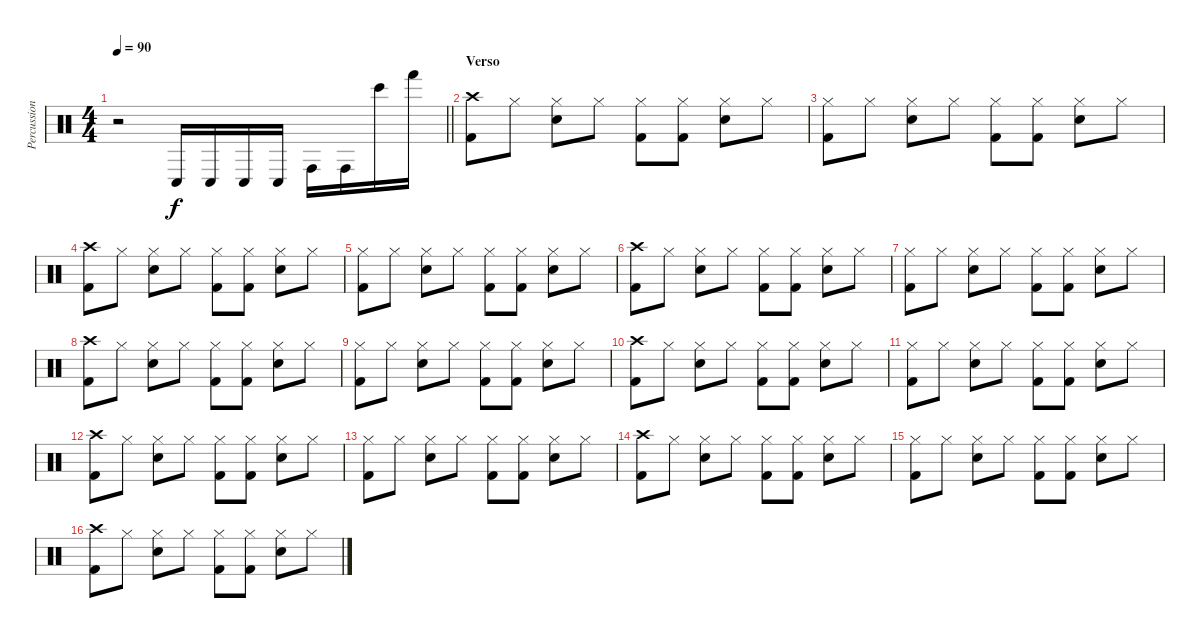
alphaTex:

\track ("Percussion" "Percussion") {instrument percussion}
\staff {score}
\articulation defaults
\ts (4 4)
\tempo 90
\clef neutral
\barLineRight lightlight
\ks c
r.2{dy f} "Conga low (hit)".16 "Conga low (hit)".16 "Conga low (hit)".16 "Conga low (hit)".16 "Conga high (hit)".16 "Conga high (hit)".16 "Bongo High (hit)".16 "Hand (hit)".16 |
\section ("" "Verso")
("Crash high (hit)" "Kick (hit) 2").8 "Hi-Hat (closed)".8 ("Hi-Hat (closed)" "Snare (hit) 2").8 "Hi-Hat (closed)".8 ("Hi-Hat (closed)" "Kick (hit) 2").8 ("Hi-Hat (closed)" "Kick (hit) 2").8 ("Hi-Hat (closed)" "Snare (hit) 2").8 "Hi-Hat (closed)".8 |
("Hi-Hat (closed)" "Kick (hit) 2").8 "Hi-Hat (closed)".8 ("Hi-Hat (closed)" "Snare (hit) 2").8 "Hi-Hat (closed)".8 ("Hi-Hat (closed)" "Kick (hit) 2").8 ("Hi-Hat (closed)" "Kick (hit) 2").8 ("Hi-Hat (closed)" "Snare (hit) 2").8 "Hi-Hat (closed)".8 |
("Crash high (hit)" "Kick (hit) 2").8 "Hi-Hat (closed)".8 ("Hi-Hat (closed)" "Snare (hit) 2").8 "Hi-Hat (closed)".8 ("Hi-Hat (closed)" "Kick (hit) 2").8 ("Hi-Hat (closed)" "Kick (hit) 2").8 ("Hi-Hat (closed)" "Snare (hit) 2").8 "Hi-Hat (closed)".8 |
("Hi-Hat (closed)" "Kick (hit) 2").8 "Hi-Hat (closed)".8 ("Hi-Hat (closed)" "Snare (hit) 2").8 "Hi-Hat (closed)".8 ("Hi-Hat (closed)" "Kick (hit) 2").8 ("Hi-Hat (closed)" "Kick (hit) 2").8 ("Hi-Hat (closed)" "Snare (hit) 2").8 "Hi-Hat (closed)".8 |
("Crash high (hit)" "Kick (hit) 2").8 "Hi-Hat (closed)".8 ("Hi-Hat (closed)" "Snare (hit) 2").8 "Hi-Hat (closed)".8 ("Hi-Hat (closed)" "Kick (hit) 2").8 ("Hi-Hat (closed)" "Kick (hit) 2").8 ("Hi-Hat (closed)" "Snare (hit) 2").8 "Hi-Hat (closed)".8 |
("Hi-Hat (closed)" "Kick (hit) 2").8 "Hi-Hat (closed)".8 ("Hi-Hat (closed)" "Snare (hit) 2").8 "Hi-Hat (closed)".8 ("Hi-Hat (closed)" "Kick (hit) 2").8 ("Hi-Hat (closed)" "Kick (hit) 2").8 ("Hi-Hat (closed)" "Snare (hit) 2").8 "Hi-Hat (closed)".8 |
("Crash high (hit)" "Kick (hit) 2").8 "Hi-Hat (closed)".8 ("Hi-Hat (closed)" "Snare (hit) 2").8 "Hi-Hat (closed)".8 ("Hi-Hat (closed)" "Kick (hit) 2").8 ("Hi-Hat (closed)" "Kick (hit) 2").8 ("Hi-Hat (closed)" "Snare (hit) 2").8 "Hi-Hat (closed)".8 |
("Hi-Hat (closed)" "Kick (hit) 2").8 "Hi-Hat (closed)".8 ("Hi-Hat (closed)" "Snare (hit) 2").8 "Hi-Hat (closed)".8 ("Hi-Hat (closed)" "Kick (hit) 2").8 ("Hi-Hat (closed)" "Kick (hit) 2").8 ("Hi-Hat (closed)" "Snare (hit) 2").8 "Hi-Hat (closed)".8 |
("Crash high (hit)" "Kick (hit) 2").8 "Hi-Hat (closed)".8 ("Hi-Hat (closed)" "Snare (hit) 2").8 "Hi-Hat (closed)".8 ("Hi-Hat (closed)" "Kick (hit) 2").8 ("Hi-Hat (closed)" "Kick (hit) 2").8 ("Hi-Hat (closed)" "Snare (hit) 2").8 "Hi-Hat (closed)".8 |
("Hi-Hat (closed)" "Kick (hit) 2").8 "Hi-Hat (closed)".8 ("Hi-Hat (closed)" "Snare (hit) 2").8 "Hi-Hat (closed)".8 ("Hi-Hat (closed)" "Kick (hit) 2").8 ("Hi-Hat (closed)" "Kick (hit) 2").8 ("Hi-Hat (closed)" "Snare (hit) 2").8 "Hi-Hat (closed)".8 |
("Crash high (hit)" "Kick (hit) 2").8 "Hi-Hat (closed)".8 ("Hi-Hat (closed)" "Snare (hit) 2").8 "Hi-Hat (closed)".8 ("Hi-Hat (closed)" "Kick (hit) 2").8 ("Hi-Hat (closed)" "Kick (hit) 2").8 ("Hi-Hat (closed)" "Snare (hit) 2").8 "Hi-Hat (closed)".8 |
("Hi-Hat (closed)" "Kick (hit) 2").8 "Hi-Hat (closed)".8 ("Hi-Hat (closed)" "Snare (hit) 2").8 "Hi-Hat (closed)".8 ("Hi-Hat (closed)" "Kick (hit) 2").8 ("Hi-Hat (closed)" "Kick (hit) 2").8 ("Hi-Hat (closed)" "Snare (hit) 2").8 "Hi-Hat (closed)".8 |
("Crash high (hit)" "Kick (hit) 2").8 "Hi-Hat (closed)".8 ("Hi-Hat (closed)" "Snare (hit) 2").8 "Hi-Hat (closed)".8 ("Hi-Hat (closed)" "Kick (hit) 2").8 ("Hi-Hat (closed)" "Kick (hit) 2").8 ("Hi-Hat (closed)" "Snare (hit) 2").8 "Hi-Hat (closed)".8 |
("Hi-Hat (closed)" "Kick (hit) 2").8 "Hi-Hat (closed)".8 ("Hi-Hat (closed)" "Snare (hit) 2").8 "Hi-Hat (closed)".8 ("Hi-Hat (closed)" "Kick (hit) 2").8 ("Hi-Hat (closed)" "Kick (hit) 2").8 ("Hi-Hat (closed)" "Snare (hit) 2").8 "Hi-Hat (closed)".8 |
("Crash high (hit)" "Kick (hit) 2").8 "Hi-Hat (closed)".8 ("Hi-Hat (closed)" "Snare (hit) 2").8 "Hi-Hat (closed)".8 ("Hi-Hat (closed)" "Kick (hit) 2").8 ("Hi-Hat (closed)" "Kick (hit) 2").8 ("Hi-Hat (closed)" "Snare (hit) 2").8 "Hi-Hat (closed)".8
